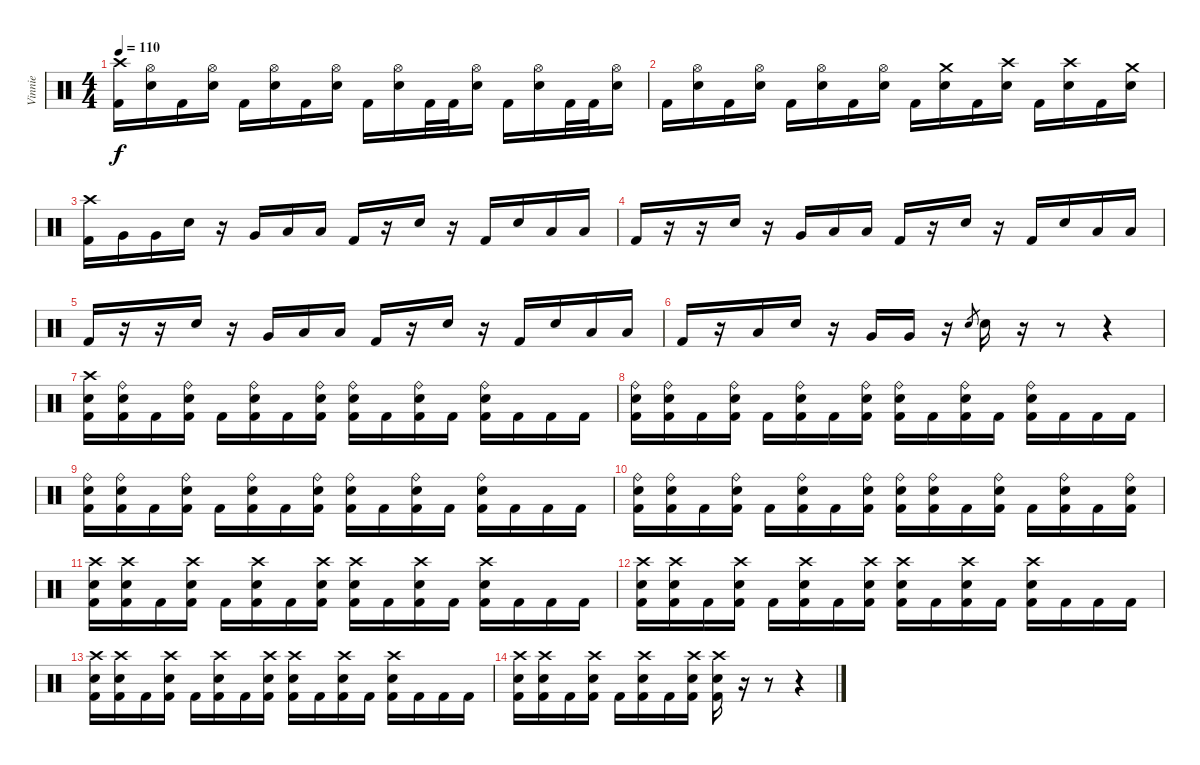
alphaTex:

\track ("Vinnie" "Vinnie") {instrument percussion}
\staff {score}
\articulation defaults
\ts (4 4)
\tempo 110
\clef neutral
\ks c
("Crash high (hit)" "Kick (hit) 2").16{dy f} ("Hi-Hat (open)" "Electric Snare (hit)").16 "Kick (hit) 2".16 ("Hi-Hat (open)" "Electric Snare (hit)").16 "Kick (hit) 2".16 ("Hi-Hat (open)" "Electric Snare (hit)").16 "Kick (hit) 2".16 ("Hi-Hat (open)" "Electric Snare (hit)").16 "Kick (hit) 2".16 ("Hi-Hat (open)" "Electric Snare (hit)").16 "Kick (hit) 2".32 "Kick (hit) 2".32 ("Hi-Hat (open)" "Electric Snare (hit)").16 "Kick (hit) 2".16 ("Hi-Hat (open)" "Electric Snare (hit)").16 "Kick (hit) 2".32 "Kick (hit) 2".32 ("Hi-Hat (open)" "Electric Snare (hit)").16 |
"Kick (hit) 2".16 ("Hi-Hat (open)" "Electric Snare (hit)").16 "Kick (hit) 2".16 ("Hi-Hat (open)" "Electric Snare (hit)").16 "Kick (hit) 2".16 ("Hi-Hat (open)" "Electric Snare (hit)").16 "Kick (hit) 2".16 ("Hi-Hat (open)" "Electric Snare (hit)").16 "Kick (hit) 2".16 ("Crash medium (hit)" "Electric Snare (hit)").16 "Kick (hit) 2".16 ("Crash high (hit)" "Electric Snare (hit)").16 "Kick (hit) 2".16 ("Crash high (hit)" "Electric Snare (hit)").16 "Kick (hit) 2".16 ("Crash medium (hit)" "Electric Snare (hit)").16 |
("Crash high (hit)" "Kick (hit) 2").16 "Very Low Tom (hit)".16 "Very Low Tom (hit)".16 "Electric Snare (hit)".16 r.16 "Very Low Tom (hit)".16 "Low Floor Tom (hit)".16 "Low Floor Tom (hit)".16 "Kick (hit) 2".16 r.16 "Electric Snare (hit)".16 r.16 "Kick (hit) 2".16 "Electric Snare (hit)".16 "Low Floor Tom (hit)".16 "Low Floor Tom (hit)".16 |
"Kick (hit) 2".16 r.16 r.16 "Electric Snare (hit)".16 r.16 "Very Low Tom (hit)".16 "Low Floor Tom (hit)".16 "Low Floor Tom (hit)".16 "Kick (hit) 2".16 r.16 "Electric Snare (hit)".16 r.16 "Kick (hit) 2".16 "Electric Snare (hit)".16 "Low Floor Tom (hit)".16 "Low Floor Tom (hit)".16 |
"Kick (hit) 2".16 r.16 r.16 "Electric Snare (hit)".16 r.16 "Very Low Tom (hit)".16 "Low Floor Tom (hit)".16 "Low Floor Tom (hit)".16 "Kick (hit) 2".16 r.16 "Electric Snare (hit)".16 r.16 "Kick (hit) 2".16 "Electric Snare (hit)".16 "Low Floor Tom (hit)".16 "Low Floor Tom (hit)".16 |
"Kick (hit) 2".16 r.16 "Low Floor Tom (hit)".16 "Electric Snare (hit)".16 r.16 "Very Low Tom (hit)".16 "Very Low Tom (hit)".16 r.16 "Electric Snare (hit)".8{gr} "Electric Snare (hit)".16 r.16 r.8 r.4 |
("Crash high (hit)" "Electric Snare (hit)" "Kick (hit) 2").16 ("Ride (bell)" "Electric Snare (hit)" "Kick (hit) 2").16 "Kick (hit) 2".16 ("Ride (bell)" "Electric Snare (hit)" "Kick (hit) 2").16 "Kick (hit) 2".16 ("Ride (bell)" "Electric Snare (hit)" "Kick (hit) 2").16 "Kick (hit) 2".16 ("Ride (bell)" "Electric Snare (hit)" "Kick (hit) 2").16 ("Ride (bell)" "Electric Snare (hit)" "Kick (hit) 2").16 "Kick (hit) 2".16 ("Ride (bell)" "Electric Snare (hit)" "Kick (hit) 2").16 "Kick (hit) 2".16 ("Ride (bell)" "Electric Snare (hit)" "Kick (hit) 2").16 "Kick (hit) 2".16 "Kick (hit) 2".16 "Kick (hit) 2".16 |
("Ride (bell)" "Electric Snare (hit)" "Kick (hit) 2").16 ("Ride (bell)" "Electric Snare (hit)" "Kick (hit) 2").16 "Kick (hit) 2".16 ("Ride (bell)" "Electric Snare (hit)" "Kick (hit) 2").16 "Kick (hit) 2".16 ("Ride (bell)" "Electric Snare (hit)" "Kick (hit) 2").16 "Kick (hit) 2".16 ("Ride (bell)" "Electric Snare (hit)" "Kick (hit) 2").16 ("Ride (bell)" "Electric Snare (hit)" "Kick (hit) 2").16 "Kick (hit) 2".16 ("Ride (bell)" "Electric Snare (hit)" "Kick (hit) 2").16 "Kick (hit) 2".16 ("Ride (bell)" "Electric Snare (hit)" "Kick (hit) 2").16 "Kick (hit) 2".16 "Kick (hit) 2".16 "Kick (hit) 2".16 |
("Ride (bell)" "Electric Snare (hit)" "Kick (hit) 2").16 ("Ride (bell)" "Electric Snare (hit)" "Kick (hit) 2").16 "Kick (hit) 2".16 ("Ride (bell)" "Electric Snare (hit)" "Kick (hit) 2").16 "Kick (hit) 2".16 ("Ride (bell)" "Electric Snare (hit)" "Kick (hit) 2").16 "Kick (hit) 2".16 ("Ride (bell)" "Electric Snare (hit)" "Kick (hit) 2").16 ("Ride (bell)" "Electric Snare (hit)" "Kick (hit) 2").16 "Kick (hit) 2".16 ("Ride (bell)" "Electric Snare (hit)" "Kick (hit) 2").16 "Kick (hit) 2".16 ("Ride (bell)" "Electric Snare (hit)" "Kick (hit) 2").16 "Kick (hit) 2".16 "Kick (hit) 2".16 "Kick (hit) 2".16 |
("Ride (bell)" "Electric Snare (hit)" "Kick (hit) 2").16 ("Ride (bell)" "Electric Snare (hit)" "Kick (hit) 2").16 "Kick (hit) 2".16 ("Ride (bell)" "Electric Snare (hit)" "Kick (hit) 2").16 "Kick (hit) 2".16 ("Ride (bell)" "Electric Snare (hit)" "Kick (hit) 2").16 "Kick (hit) 2".16 ("Ride (bell)" "Electric Snare (hit)" "Kick (hit) 2").16 ("Ride (bell)" "Electric Snare (hit)" "Kick (hit) 2").16 ("Ride (bell)" "Electric Snare (hit)" "Kick (hit) 2").16 "Kick (hit) 2".16 ("Ride (bell)" "Electric Snare (hit)" "Kick (hit) 2").16 "Kick (hit) 2".16 ("Ride (bell)" "Electric Snare (hit)" "Kick (hit) 2").16 "Kick (hit) 2".16 ("Ride (bell)" "Electric Snare (hit)" "Kick (hit) 2").16 |
("Crash high (hit)" "Electric Snare (hit)" "Kick (hit) 2").16 ("Crash high (hit)" "Electric Snare (hit)" "Kick (hit) 2").16 "Kick (hit) 2".16 ("Crash high (hit)" "Electric Snare (hit)" "Kick (hit) 2").16 "Kick (hit) 2".16 ("Crash high (hit)" "Electric Snare (hit)" "Kick (hit) 2").16 "Kick (hit) 2".16 ("Crash high (hit)" "Electric Snare (hit)" "Kick (hit) 2").16 ("Crash high (hit)" "Electric Snare (hit)" "Kick (hit) 2").16 "Kick (hit) 2".16 ("Crash high (hit)" "Electric Snare (hit)" "Kick (hit) 2").16 "Kick (hit) 2".16 ("Crash high (hit)" "Electric Snare (hit)" "Kick (hit) 2").16 "Kick (hit) 2".16 "Kick (hit) 2".16 "Kick (hit) 2".16 |
("Crash high (hit)" "Electric Snare (hit)" "Kick (hit) 2").16 ("Crash high (hit)" "Electric Snare (hit)" "Kick (hit) 2").16 "Kick (hit) 2".16 ("Crash high (hit)" "Electric Snare (hit)" "Kick (hit) 2").16 "Kick (hit) 2".16 ("Crash high (hit)" "Electric Snare (hit)" "Kick (hit) 2").16 "Kick (hit) 2".16 ("Crash high (hit)" "Electric Snare (hit)" "Kick (hit) 2").16 ("Crash high (hit)" "Electric Snare (hit)" "Kick (hit) 2").16 "Kick (hit) 2".16 ("Crash high (hit)" "Electric Snare (hit)" "Kick (hit) 2").16 "Kick (hit) 2".16 ("Crash high (hit)" "Electric Snare (hit)" "Kick (hit) 2").16 "Kick (hit) 2".16 "Kick (hit) 2".16 "Kick (hit) 2".16 |
("Crash high (hit)" "Electric Snare (hit)" "Kick (hit) 2").16 ("Crash high (hit)" "Electric Snare (hit)" "Kick (hit) 2").16 "Kick (hit) 2".16 ("Crash high (hit)" "Electric Snare (hit)" "Kick (hit) 2").16 "Kick (hit) 2".16 ("Crash high (hit)" "Electric Snare (hit)" "Kick (hit) 2").16 "Kick (hit) 2".16 ("Crash high (hit)" "Electric Snare (hit)" "Kick (hit) 2").16 ("Crash high (hit)" "Electric Snare (hit)" "Kick (hit) 2").16 "Kick (hit) 2".16 ("Crash high (hit)" "Electric Snare (hit)" "Kick (hit) 2").16 "Kick (hit) 2".16 ("Crash high (hit)" "Electric Snare (hit)" "Kick (hit) 2").16 "Kick (hit) 2".16 "Kick (hit) 2".16 "Kick (hit) 2".16 |
("Crash high (hit)" "Electric Snare (hit)" "Kick (hit) 2").16 ("Crash high (hit)" "Electric Snare (hit)" "Kick (hit) 2").16 "Kick (hit) 2".16 ("Crash high (hit)" "Electric Snare (hit)" "Kick (hit) 2").16 "Kick (hit) 2".16 ("Crash high (hit)" "Electric Snare (hit)" "Kick (hit) 2").16 "Kick (hit) 2".16 ("Crash high (hit)" "Electric Snare (hit)" "Kick (hit) 2").16 ("Crash high (hit)" "Electric Snare (hit)" "Kick (hit) 2").16 r.16 r.8 r.4
